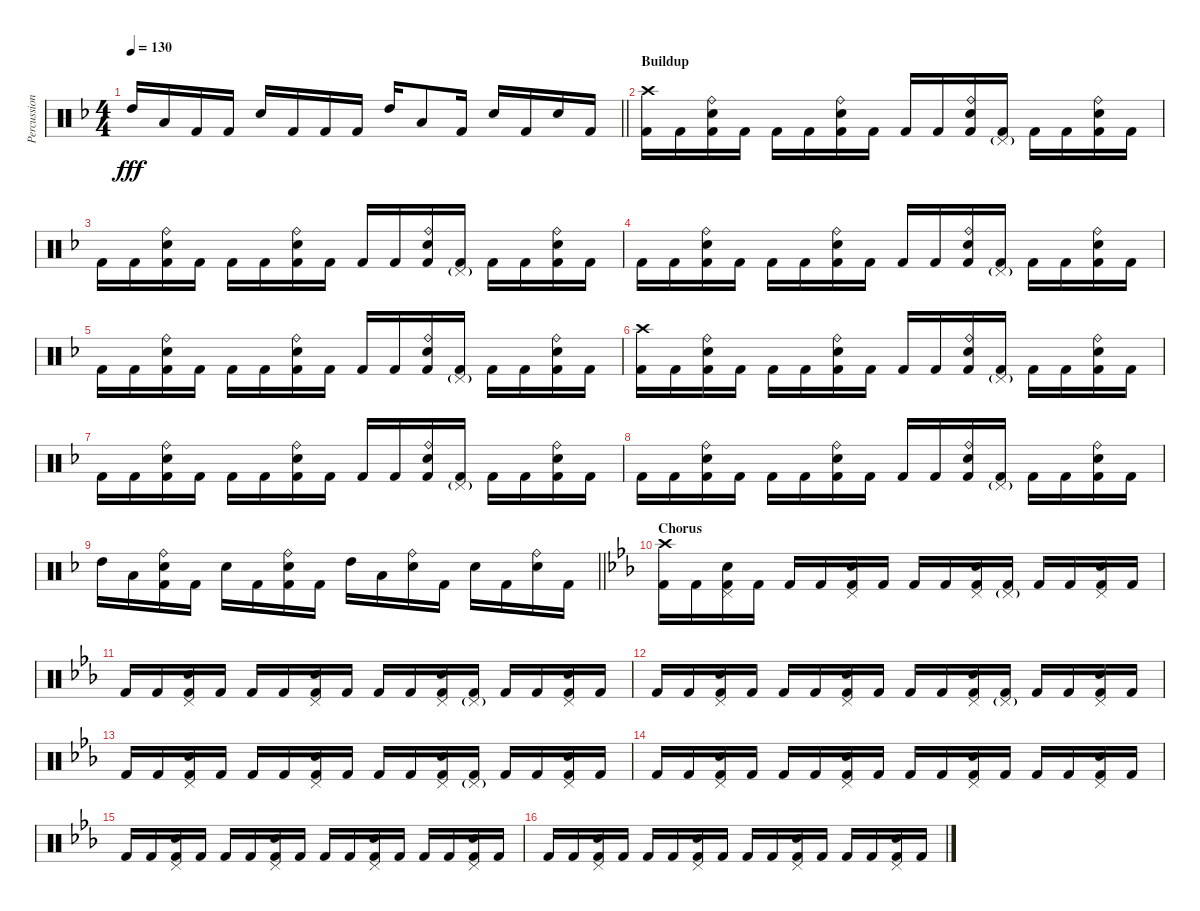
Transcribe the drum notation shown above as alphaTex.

\track ("Percussion" "Percussion") {instrument percussion}
\staff {score}
\articulation defaults
\ts (4 4)
\tempo 130
\clef neutral
\barLineRight lightlight
\ks dminor "High Tom (hit)".16{dy fff} "Low Tom (hit)".16 "Kick (hit) 2".16 "Kick (hit) 2".16 "Electric Snare (hit)".16 "Kick (hit) 2".16 "Kick (hit) 2".16 "Kick (hit) 2".16 "High Tom (hit)".16 "Low Tom (hit)".8 "Kick (hit) 2".16 "Electric Snare (hit)".16 "Kick (hit) 2".16 "Electric Snare (hit)".16 "Kick (hit) 2".16
|
\section ("" "Buildup")
("Crash high (hit)" "Kick (hit) 2").16 "Kick (hit) 2".16 ("Ride (bell)" "Electric Snare (hit)" "Kick (hit) 2").16 "Kick (hit) 2".16 "Kick (hit) 2".16 "Kick (hit) 2".16 ("Ride (bell)" "Electric Snare (hit)" "Kick (hit) 2").16 "Kick (hit) 2".16 "Kick (hit) 2".16 "Kick (hit) 2".16 ("Ride (bell)" "Electric Snare (hit)" "Kick (hit) 2").16 ("Pedal Hi-Hat (hit)"{g} "Kick (hit) 2").16 "Kick (hit) 2".16 "Kick (hit) 2".16 ("Ride (bell)" "Electric Snare (hit)" "Kick (hit) 2").16 "Kick (hit) 2".16 |
"Kick (hit) 2".16 "Kick (hit) 2".16 ("Ride (bell)" "Electric Snare (hit)" "Kick (hit) 2").16 "Kick (hit) 2".16 "Kick (hit) 2".16 "Kick (hit) 2".16 ("Ride (bell)" "Electric Snare (hit)" "Kick (hit) 2").16 "Kick (hit) 2".16 "Kick (hit) 2".16 "Kick (hit) 2".16 ("Ride (bell)" "Electric Snare (hit)" "Kick (hit) 2").16 ("Pedal Hi-Hat (hit)"{g} "Kick (hit) 2").16 "Kick (hit) 2".16 "Kick (hit) 2".16 ("Ride (bell)" "Electric Snare (hit)" "Kick (hit) 2").16 "Kick (hit) 2".16 |
"Kick (hit) 2".16 "Kick (hit) 2".16 ("Ride (bell)" "Electric Snare (hit)" "Kick (hit) 2").16 "Kick (hit) 2".16 "Kick (hit) 2".16 "Kick (hit) 2".16 ("Ride (bell)" "Electric Snare (hit)" "Kick (hit) 2").16 "Kick (hit) 2".16 "Kick (hit) 2".16 "Kick (hit) 2".16 ("Ride (bell)" "Electric Snare (hit)" "Kick (hit) 2").16 ("Pedal Hi-Hat (hit)"{g} "Kick (hit) 2").16 "Kick (hit) 2".16 "Kick (hit) 2".16 ("Ride (bell)" "Electric Snare (hit)" "Kick (hit) 2").16 "Kick (hit) 2".16 |
"Kick (hit) 2".16 "Kick (hit) 2".16 ("Ride (bell)" "Electric Snare (hit)" "Kick (hit) 2").16 "Kick (hit) 2".16 "Kick (hit) 2".16 "Kick (hit) 2".16 ("Ride (bell)" "Electric Snare (hit)" "Kick (hit) 2").16 "Kick (hit) 2".16 "Kick (hit) 2".16 "Kick (hit) 2".16 ("Ride (bell)" "Electric Snare (hit)" "Kick (hit) 2").16 ("Pedal Hi-Hat (hit)"{g} "Kick (hit) 2").16 "Kick (hit) 2".16 "Kick (hit) 2".16 ("Ride (bell)" "Electric Snare (hit)" "Kick (hit) 2").16 "Kick (hit) 2".16 |
("Crash high (hit)" "Kick (hit) 2").16 "Kick (hit) 2".16 ("Ride (bell)" "Electric Snare (hit)" "Kick (hit) 2").16 "Kick (hit) 2".16 "Kick (hit) 2".16 "Kick (hit) 2".16 ("Ride (bell)" "Electric Snare (hit)" "Kick (hit) 2").16 "Kick (hit) 2".16 "Kick (hit) 2".16 "Kick (hit) 2".16 ("Ride (bell)" "Electric Snare (hit)" "Kick (hit) 2").16 ("Pedal Hi-Hat (hit)"{g} "Kick (hit) 2").16 "Kick (hit) 2".16 "Kick (hit) 2".16 ("Ride (bell)" "Electric Snare (hit)" "Kick (hit) 2").16 "Kick (hit) 2".16 |
"Kick (hit) 2".16 "Kick (hit) 2".16 ("Ride (bell)" "Electric Snare (hit)" "Kick (hit) 2").16 "Kick (hit) 2".16 "Kick (hit) 2".16 "Kick (hit) 2".16 ("Ride (bell)" "Electric Snare (hit)" "Kick (hit) 2").16 "Kick (hit) 2".16 "Kick (hit) 2".16 "Kick (hit) 2".16 ("Ride (bell)" "Electric Snare (hit)" "Kick (hit) 2").16 ("Pedal Hi-Hat (hit)"{g} "Kick (hit) 2").16 "Kick (hit) 2".16 "Kick (hit) 2".16 ("Ride (bell)" "Electric Snare (hit)" "Kick (hit) 2").16 "Kick (hit) 2".16 |
"Kick (hit) 2".16 "Kick (hit) 2".16 ("Ride (bell)" "Electric Snare (hit)" "Kick (hit) 2").16 "Kick (hit) 2".16 "Kick (hit) 2".16 "Kick (hit) 2".16 ("Ride (bell)" "Electric Snare (hit)" "Kick (hit) 2").16 "Kick (hit) 2".16 "Kick (hit) 2".16 "Kick (hit) 2".16 ("Ride (bell)" "Electric Snare (hit)" "Kick (hit) 2").16 ("Pedal Hi-Hat (hit)"{g} "Kick (hit) 2").16 "Kick (hit) 2".16 "Kick (hit) 2".16 ("Ride (bell)" "Electric Snare (hit)" "Kick (hit) 2").16 "Kick (hit) 2".16 |
\barLineRight lightlight "High Tom (hit)".16 "Low Tom (hit)".16
("Ride (bell)" "Electric Snare (hit)" "Kick (hit) 2").16 "Kick (hit) 2".16 "Electric Snare (hit)".16 "Kick (hit) 2".16 ("Ride (bell)" "Electric Snare (hit)" "Kick (hit) 2").16 "Kick (hit) 2".16 "High Tom (hit)".16 "Low Tom (hit)".16 ("Ride (bell)" "Electric Snare (hit)").16 "Kick (hit) 2".16 "Electric Snare (hit)".16 "Kick (hit) 2".16 ("Ride (bell)" "Electric Snare (hit)").16 "Kick (hit) 2".16 |
\section ("" "Chorus")
\ks cminor
("Crash high (hit)" "Kick (hit) 2").16 "Kick (hit) 2".16 ("Pedal Hi-Hat (hit)" "Electric Snare (hit)" "Kick (hit) 2").16 "Kick (hit) 2".16 "Kick (hit) 2".16 "Kick (hit) 2".16 ("Pedal Hi-Hat (hit)" "Electric Snare (hit)" "Kick (hit) 2").16 "Kick (hit) 2".16 "Kick (hit) 2".16 "Kick (hit) 2".16 ("Pedal Hi-Hat (hit)" "Electric Snare (hit)" "Kick (hit) 2").16 ("Pedal Hi-Hat (hit)"{g} "Kick (hit) 2").16 "Kick (hit) 2".16 "Kick (hit) 2".16 ("Pedal Hi-Hat (hit)" "Electric Snare (hit)" "Kick (hit) 2").16 "Kick (hit) 2".16 |
"Kick (hit) 2".16 "Kick (hit) 2".16 ("Pedal Hi-Hat (hit)" "Electric Snare (hit)" "Kick (hit) 2").16 "Kick (hit) 2".16 "Kick (hit) 2".16 "Kick (hit) 2".16 ("Pedal Hi-Hat (hit)" "Electric Snare (hit)" "Kick (hit) 2").16 "Kick (hit) 2".16 "Kick (hit) 2".16 "Kick (hit) 2".16 ("Pedal Hi-Hat (hit)" "Electric Snare (hit)" "Kick (hit) 2").16 ("Pedal Hi-Hat (hit)"{g} "Kick (hit) 2").16 "Kick (hit) 2".16 "Kick (hit) 2".16 ("Pedal Hi-Hat (hit)" "Electric Snare (hit)" "Kick (hit) 2").16 "Kick (hit) 2".16 |
"Kick (hit) 2".16 "Kick (hit) 2".16 ("Pedal Hi-Hat (hit)" "Electric Snare (hit)" "Kick (hit) 2").16 "Kick (hit) 2".16 "Kick (hit) 2".16 "Kick (hit) 2".16 ("Pedal Hi-Hat (hit)" "Electric Snare (hit)" "Kick (hit) 2").16 "Kick (hit) 2".16 "Kick (hit) 2".16 "Kick (hit) 2".16 ("Pedal Hi-Hat (hit)" "Electric Snare (hit)" "Kick (hit) 2").16 ("Pedal Hi-Hat (hit)"{g} "Kick (hit) 2").16 "Kick (hit) 2".16 "Kick (hit) 2".16 ("Pedal Hi-Hat (hit)" "Electric Snare (hit)" "Kick (hit) 2").16 "Kick (hit) 2".16 |
"Kick (hit) 2".16 "Kick (hit) 2".16 ("Pedal Hi-Hat (hit)" "Electric Snare (hit)" "Kick (hit) 2").16 "Kick (hit) 2".16 "Kick (hit) 2".16 "Kick (hit) 2".16 ("Pedal Hi-Hat (hit)" "Electric Snare (hit)" "Kick (hit) 2").16 "Kick (hit) 2".16 "Kick (hit) 2".16 "Kick (hit) 2".16 ("Pedal Hi-Hat (hit)" "Electric Snare (hit)" "Kick (hit) 2").16 ("Pedal Hi-Hat (hit)"{g} "Kick (hit) 2").16 "Kick (hit) 2".16 "Kick (hit) 2".16 ("Pedal Hi-Hat (hit)" "Electric Snare (hit)" "Kick (hit) 2").16 "Kick (hit) 2".16 |
"Kick (hit) 2".16 "Kick (hit) 2".16 ("Pedal Hi-Hat (hit)" "Electric Snare (hit)" "Kick (hit) 2").16 "Kick (hit) 2".16 "Kick (hit) 2".16 "Kick (hit) 2".16 ("Pedal Hi-Hat (hit)" "Electric Snare (hit)" "Kick (hit) 2").16 "Kick (hit) 2".16 "Kick (hit) 2".16 "Kick (hit) 2".16 ("Pedal Hi-Hat (hit)" "Electric Snare (hit)" "Kick (hit) 2").16 "Kick (hit) 2".16 "Kick (hit) 2".16 "Kick (hit) 2".16 ("Pedal Hi-Hat (hit)" "Electric Snare (hit)" "Kick (hit) 2").16 "Kick (hit) 2".16 |
"Kick (hit) 2".16 "Kick (hit) 2".16 ("Pedal Hi-Hat (hit)" "Electric Snare (hit)" "Kick (hit) 2").16 "Kick (hit) 2".16 "Kick (hit) 2".16 "Kick (hit) 2".16 ("Pedal Hi-Hat (hit)" "Electric Snare (hit)" "Kick (hit) 2").16 "Kick (hit) 2".16 "Kick (hit) 2".16 "Kick (hit) 2".16 ("Pedal Hi-Hat (hit)" "Electric Snare (hit)" "Kick (hit) 2").16 "Kick (hit) 2".16 "Kick (hit) 2".16 "Kick (hit) 2".16 ("Pedal Hi-Hat (hit)" "Electric Snare (hit)" "Kick (hit) 2").16 "Kick (hit) 2".16 |
"Kick (hit) 2".16 "Kick (hit) 2".16 ("Pedal Hi-Hat (hit)" "Electric Snare (hit)" "Kick (hit) 2").16 "Kick (hit) 2".16 "Kick (hit) 2".16 "Kick (hit) 2".16 ("Pedal Hi-Hat (hit)" "Electric Snare (hit)" "Kick (hit) 2").16 "Kick (hit) 2".16 "Kick (hit) 2".16 "Kick (hit) 2".16 ("Pedal Hi-Hat (hit)" "Electric Snare (hit)" "Kick (hit) 2").16 "Kick (hit) 2".16 "Kick (hit) 2".16 "Kick (hit) 2".16 ("Pedal Hi-Hat (hit)" "Electric Snare (hit)" "Kick (hit) 2").16 "Kick (hit) 2".16
